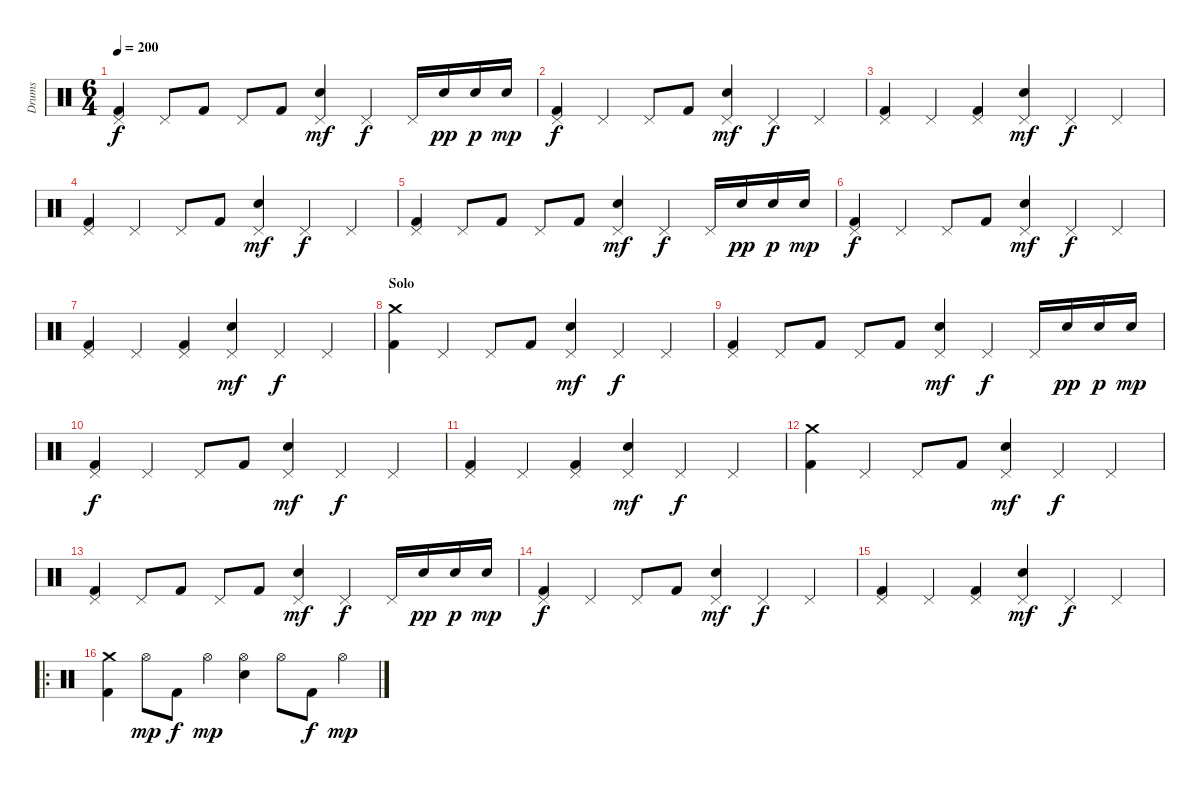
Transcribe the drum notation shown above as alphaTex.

\track ("Drums" "Drums") {instrument percussion}
\staff {score}
\articulation defaults
\ts (6 4)
\tempo 200
\clef neutral
\ks c
("Pedal Hi-Hat (hit)" "Kick (hit) 2").4{dy f} "Pedal Hi-Hat (hit)".8 "Kick (hit) 2".8 "Pedal Hi-Hat (hit)".8 "Kick (hit) 2".8 ("Pedal Hi-Hat (hit)" "Snare (hit) 2").4{dy mf} "Pedal Hi-Hat (hit)".4{dy f} "Pedal Hi-Hat (hit)".16 "Snare (hit) 2".16{dy pp} "Snare (hit) 2".16{dy p} "Snare (hit) 2".16{dy mp} |
("Pedal Hi-Hat (hit)" "Kick (hit) 2").4{dy f} "Pedal Hi-Hat (hit)".4 "Pedal Hi-Hat (hit)".8 "Kick (hit) 2".8 ("Pedal Hi-Hat (hit)" "Snare (hit) 2").4{dy mf} "Pedal Hi-Hat (hit)".4{dy f} "Pedal Hi-Hat (hit)".4 |
("Pedal Hi-Hat (hit)" "Kick (hit) 2").4 "Pedal Hi-Hat (hit)".4 ("Pedal Hi-Hat (hit)" "Kick (hit) 2").4 ("Pedal Hi-Hat (hit)" "Snare (hit) 2").4{dy mf} "Pedal Hi-Hat (hit)".4{dy f} "Pedal Hi-Hat (hit)".4 |
("Pedal Hi-Hat (hit)" "Kick (hit) 2").4 "Pedal Hi-Hat (hit)".4 "Pedal Hi-Hat (hit)".8 "Kick (hit) 2".8 ("Pedal Hi-Hat (hit)" "Snare (hit) 2").4{dy mf} "Pedal Hi-Hat (hit)".4{dy f} "Pedal Hi-Hat (hit)".4 |
("Pedal Hi-Hat (hit)" "Kick (hit) 2").4 "Pedal Hi-Hat (hit)".8 "Kick (hit) 2".8 "Pedal Hi-Hat (hit)".8 "Kick (hit) 2".8 ("Pedal Hi-Hat (hit)" "Snare (hit) 2").4{dy mf} "Pedal Hi-Hat (hit)".4{dy f} "Pedal Hi-Hat (hit)".16 "Snare (hit) 2".16{dy pp} "Snare (hit) 2".16{dy p} "Snare (hit) 2".16{dy mp} |
("Pedal Hi-Hat (hit)" "Kick (hit) 2").4{dy f} "Pedal Hi-Hat (hit)".4 "Pedal Hi-Hat (hit)".8 "Kick (hit) 2".8 ("Pedal Hi-Hat (hit)" "Snare (hit) 2").4{dy mf} "Pedal Hi-Hat (hit)".4{dy f} "Pedal Hi-Hat (hit)".4 |
("Pedal Hi-Hat (hit)" "Kick (hit) 2").4 "Pedal Hi-Hat (hit)".4 ("Pedal Hi-Hat (hit)" "Kick (hit) 2").4 ("Pedal Hi-Hat (hit)" "Snare (hit) 2").4{dy mf} "Pedal Hi-Hat (hit)".4{dy f} "Pedal Hi-Hat (hit)".4 |
\section ("" "Solo")
("Crash medium (hit)" "Kick (hit) 2").4 "Pedal Hi-Hat (hit)".4 "Pedal Hi-Hat (hit)".8 "Kick (hit) 2".8 ("Pedal Hi-Hat (hit)" "Snare (hit) 2").4{dy mf} "Pedal Hi-Hat (hit)".4{dy f} "Pedal Hi-Hat (hit)".4 |
("Pedal Hi-Hat (hit)" "Kick (hit) 2").4 "Pedal Hi-Hat (hit)".8 "Kick (hit) 2".8 "Pedal Hi-Hat (hit)".8 "Kick (hit) 2".8 ("Pedal Hi-Hat (hit)" "Snare (hit) 2").4{dy mf} "Pedal Hi-Hat (hit)".4{dy f} "Pedal Hi-Hat (hit)".16 "Snare (hit) 2".16{dy pp} "Snare (hit) 2".16{dy p} "Snare (hit) 2".16{dy mp} |
("Pedal Hi-Hat (hit)" "Kick (hit) 2").4{dy f} "Pedal Hi-Hat (hit)".4 "Pedal Hi-Hat (hit)".8 "Kick (hit) 2".8 ("Pedal Hi-Hat (hit)" "Snare (hit) 2").4{dy mf} "Pedal Hi-Hat (hit)".4{dy f} "Pedal Hi-Hat (hit)".4 |
("Pedal Hi-Hat (hit)" "Kick (hit) 2").4 "Pedal Hi-Hat (hit)".4 ("Pedal Hi-Hat (hit)" "Kick (hit) 2").4 ("Pedal Hi-Hat (hit)" "Snare (hit) 2").4{dy mf} "Pedal Hi-Hat (hit)".4{dy f} "Pedal Hi-Hat (hit)".4 |
("Crash medium (hit)" "Kick (hit) 2").4 "Pedal Hi-Hat (hit)".4 "Pedal Hi-Hat (hit)".8 "Kick (hit) 2".8 ("Pedal Hi-Hat (hit)" "Snare (hit) 2").4{dy mf} "Pedal Hi-Hat (hit)".4{dy f} "Pedal Hi-Hat (hit)".4 |
("Pedal Hi-Hat (hit)" "Kick (hit) 2").4 "Pedal Hi-Hat (hit)".8 "Kick (hit) 2".8 "Pedal Hi-Hat (hit)".8 "Kick (hit) 2".8 ("Pedal Hi-Hat (hit)" "Snare (hit) 2").4{dy mf} "Pedal Hi-Hat (hit)".4{dy f} "Pedal Hi-Hat (hit)".16 "Snare (hit) 2".16{dy pp} "Snare (hit) 2".16{dy p} "Snare (hit) 2".16{dy mp} |
("Pedal Hi-Hat (hit)" "Kick (hit) 2").4{dy f} "Pedal Hi-Hat (hit)".4 "Pedal Hi-Hat (hit)".8 "Kick (hit) 2".8 ("Pedal Hi-Hat (hit)" "Snare (hit) 2").4{dy mf} "Pedal Hi-Hat (hit)".4{dy f} "Pedal Hi-Hat (hit)".4 |
("Pedal Hi-Hat (hit)" "Kick (hit) 2").4 "Pedal Hi-Hat (hit)".4 ("Pedal Hi-Hat (hit)" "Kick (hit) 2").4 ("Pedal Hi-Hat (hit)" "Snare (hit) 2").4{dy mf} "Pedal Hi-Hat (hit)".4{dy f} "Pedal Hi-Hat (hit)".4 |
\ro
("Crash medium (hit)" "Kick (hit) 2").4 "Hi-Hat (open)".8{dy mp} "Kick (hit) 2".8{dy f} "Hi-Hat (open)".4{dy mp} ("Hi-Hat (open)" "Snare (hit) 2").4 "Hi-Hat (open)".8 "Kick (hit) 2".8{dy f} "Hi-Hat (open)".4{dy mp}
